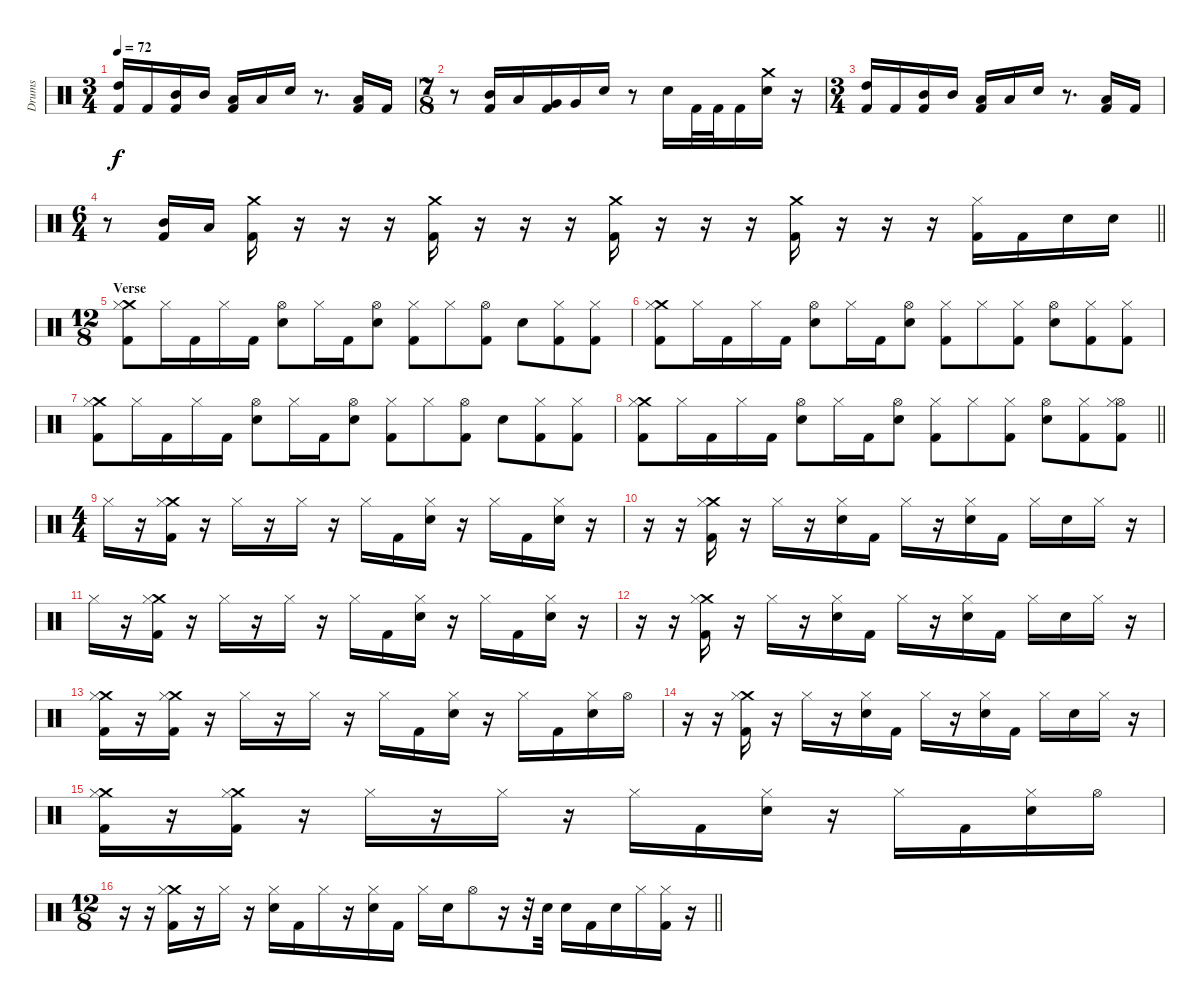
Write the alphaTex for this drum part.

\track ("Drums" "Drums") {instrument percussion}
\staff {score}
\articulation defaults
\ts (3 4)
\tempo 72
\clef neutral
\ks c
("High Tom (hit)" "Kick (hit) 2").16{dy f} "Kick (hit) 2".16 ("Mid Tom (hit)" "Kick (hit) 2").16 "Mid Tom (hit)".16 ("Low Tom (hit)" "Kick (hit) 2").16 "Low Tom (hit)".16 "Snare (hit) 2".16 r.8{d} ("Low Tom (hit)" "Kick (hit) 2").16 "Kick (hit) 2".16 |
\ts (7 8)
r.8 ("Mid Tom (hit)" "Kick (hit) 2").16 "Low Tom (hit)".16 ("Very Low Tom (hit)" "Kick (hit) 2").16 "Very Low Tom (hit)".16 "Snare (hit) 2".16 r.8 "Snare (hit) 2".16 "Kick (hit) 2".32 "Kick (hit) 2".32 "Kick (hit) 2".16 ("Crash medium (hit)" "Snare (hit) 2").16 r.16 |
\ts (3 4)
("High Tom (hit)" "Kick (hit) 2").16 "Kick (hit) 2".16 ("Mid Tom (hit)" "Kick (hit) 2").16 "Mid Tom (hit)".16 ("Low Tom (hit)" "Kick (hit) 2").16 "Low Tom (hit)".16 "Snare (hit) 2".16 r.8{d} ("Low Tom (hit)" "Kick (hit) 2").16 "Kick (hit) 2".16 |
\ts (6 4)
\barLineRight lightlight
r.8 ("Mid Tom (hit)" "Kick (hit) 2").16 "Low Tom (hit)".16 ("Crash medium (hit)" "Kick (hit) 2").16 r.16 r.16 r.16 ("Crash medium (hit)" "Kick (hit) 2").16 r.16 r.16 r.16 ("Crash medium (hit)" "Kick (hit) 2").16 r.16 r.16 r.16 ("Crash medium (hit)" "Kick (hit) 2").16 r.16 r.16 r.16 ("Hi-Hat (closed)" "Kick (hit) 2").16 "Kick (hit) 2".16 "Snare (hit) 2".16 "Snare (hit) 2".16 |
\ts (12 8)
\section ("" "Verse")
("Crash medium (hit)" "Hi-Hat (closed)" "Kick (hit) 2").8 "Hi-Hat (closed)".16 "Kick (hit) 2".16 "Hi-Hat (closed)".16 "Kick (hit) 2".16 ("Hi-Hat (open)" "Snare (hit) 2").8 "Hi-Hat (closed)".16 "Kick (hit) 2".16 ("Hi-Hat (open)" "Snare (hit) 2").8 ("Hi-Hat (closed)" "Kick (hit) 2").8 "Hi-Hat (closed)".8 ("Hi-Hat (open)" "Kick (hit) 2").8 "Snare (hit) 2".8 ("Hi-Hat (closed)" "Kick (hit) 2").8 ("Hi-Hat (closed)" "Kick (hit) 2").8 |
("Crash medium (hit)" "Hi-Hat (closed)" "Kick (hit) 2").8 "Hi-Hat (closed)".16 "Kick (hit) 2".16 "Hi-Hat (closed)".16 "Kick (hit) 2".16 ("Hi-Hat (open)" "Snare (hit) 2").8 "Hi-Hat (closed)".16 "Kick (hit) 2".16 ("Hi-Hat (open)" "Snare (hit) 2").8 ("Hi-Hat (closed)" "Kick (hit) 2").8 "Hi-Hat (closed)".8 ("Hi-Hat (closed)" "Kick (hit) 2").8 ("Hi-Hat (open)" "Snare (hit) 2").8 ("Hi-Hat (closed)" "Kick (hit) 2").8 ("Hi-Hat (closed)" "Kick (hit) 2").8 |
("Crash medium (hit)" "Hi-Hat (closed)" "Kick (hit) 2").8 "Hi-Hat (closed)".16 "Kick (hit) 2".16 "Hi-Hat (closed)".16 "Kick (hit) 2".16 ("Hi-Hat (open)" "Snare (hit) 2").8 "Hi-Hat (closed)".16 "Kick (hit) 2".16 ("Hi-Hat (open)" "Snare (hit) 2").8 ("Hi-Hat (closed)" "Kick (hit) 2").8 "Hi-Hat (closed)".8 ("Hi-Hat (open)" "Kick (hit) 2").8 "Snare (hit) 2".8 ("Hi-Hat (closed)" "Kick (hit) 2").8 ("Hi-Hat (closed)" "Kick (hit) 2").8 |
\barLineRight lightlight
("Crash medium (hit)" "Hi-Hat (closed)" "Kick (hit) 2").8 "Hi-Hat (closed)".16 "Kick (hit) 2".16 "Hi-Hat (closed)".16 "Kick (hit) 2".16 ("Hi-Hat (open)" "Snare (hit) 2").8 "Hi-Hat (closed)".16 "Kick (hit) 2".16 ("Hi-Hat (open)" "Snare (hit) 2").8 ("Hi-Hat (closed)" "Kick (hit) 2").8 "Hi-Hat (closed)".8 ("Hi-Hat (closed)" "Kick (hit) 2").8 ("Hi-Hat (open)" "Snare (hit) 2").8 ("Hi-Hat (closed)" "Kick (hit) 2").8 ("Hi-Hat (open)" "Hi-Hat (closed)" "Kick (hit) 2").8 |
\ts (4 4)
\section ("" "")
"Hi-Hat (closed)".16 r.16 ("Crash medium (hit)" "Hi-Hat (closed)" "Kick (hit) 2").16 r.16 "Hi-Hat (closed)".16 r.16 "Hi-Hat (closed)".16 r.16 "Hi-Hat (closed)".16 "Kick (hit) 2".16 ("Hi-Hat (closed)" "Snare (hit) 2").16 r.16 "Hi-Hat (closed)".16 "Kick (hit) 2".16 ("Hi-Hat (closed)" "Snare (hit) 2").16 r.16 |
r.16 r.16 ("Crash medium (hit)" "Hi-Hat (closed)" "Kick (hit) 2").16 r.16 "Hi-Hat (closed)".16 r.16 ("Hi-Hat (closed)" "Snare (hit) 2").16 "Kick (hit) 2".16 "Hi-Hat (closed)".16 r.16 ("Hi-Hat (closed)" "Snare (hit) 2").16 "Kick (hit) 2".16 "Hi-Hat (closed)".16 "Snare (hit) 2".16 "Hi-Hat (closed)".16 r.16 |
"Hi-Hat (closed)".16 r.16 ("Crash medium (hit)" "Hi-Hat (closed)" "Kick (hit) 2").16 r.16 "Hi-Hat (closed)".16 r.16 "Hi-Hat (closed)".16 r.16 "Hi-Hat (closed)".16 "Kick (hit) 2".16 ("Hi-Hat (closed)" "Snare (hit) 2").16 r.16 "Hi-Hat (closed)".16 "Kick (hit) 2".16 ("Hi-Hat (closed)" "Snare (hit) 2").16 r.16 |
r.16 r.16 ("Crash medium (hit)" "Hi-Hat (closed)" "Kick (hit) 2").16 r.16 "Hi-Hat (closed)".16 r.16 ("Hi-Hat (closed)" "Snare (hit) 2").16 "Kick (hit) 2".16 "Hi-Hat (closed)".16 r.16 ("Hi-Hat (closed)" "Snare (hit) 2").16 "Kick (hit) 2".16 "Hi-Hat (closed)".16 "Snare (hit) 2".16 "Hi-Hat (closed)".16 r.16 |
("Crash medium (hit)" "Hi-Hat (closed)" "Kick (hit) 2").16 r.16 ("Crash medium (hit)" "Hi-Hat (closed)" "Kick (hit) 2").16 r.16 "Hi-Hat (closed)".16 r.16 "Hi-Hat (closed)".16 r.16 "Hi-Hat (closed)".16 "Kick (hit) 2".16 ("Hi-Hat (closed)" "Snare (hit) 2").16 r.16 "Hi-Hat (closed)".16 "Kick (hit) 2".16 ("Hi-Hat (closed)" "Snare (hit) 2").16 "Hi-Hat (open)".16 |
r.16 r.16 ("Crash medium (hit)" "Hi-Hat (closed)" "Kick (hit) 2").16 r.16 "Hi-Hat (closed)".16 r.16 ("Hi-Hat (closed)" "Snare (hit) 2").16 "Kick (hit) 2".16 "Hi-Hat (closed)".16 r.16 ("Hi-Hat (closed)" "Snare (hit) 2").16 "Kick (hit) 2".16 "Hi-Hat (closed)".16 "Snare (hit) 2".16 "Hi-Hat (closed)".16 r.16 |
("Crash medium (hit)" "Hi-Hat (closed)" "Kick (hit) 2").16 r.16 ("Crash medium (hit)" "Hi-Hat (closed)" "Kick (hit) 2").16 r.16 "Hi-Hat (closed)".16 r.16 "Hi-Hat (closed)".16 r.16 "Hi-Hat (closed)".16 "Kick (hit) 2".16 ("Hi-Hat (closed)" "Snare (hit) 2").16 r.16 "Hi-Hat (closed)".16 "Kick (hit) 2".16 ("Hi-Hat (closed)" "Snare (hit) 2").16 "Hi-Hat (open)".16 |
\ts (12 8)
\barLineRight lightlight
r.16 r.16 ("Crash medium (hit)" "Hi-Hat (closed)" "Kick (hit) 2").16 r.16 "Hi-Hat (closed)".16 r.16 ("Hi-Hat (closed)" "Snare (hit) 2").16 "Kick (hit) 2".16 "Hi-Hat (closed)".16 r.16 ("Hi-Hat (closed)" "Snare (hit) 2").16 "Kick (hit) 2".16 "Hi-Hat (closed)".16 "Snare (hit) 2".16 "Hi-Hat (open)".8 r.16 r.32 "Snare (hit) 2".32 "Snare (hit) 2".16 "Kick (hit) 2".16 "Snare (hit) 2".16 "Hi-Hat (closed)".16 ("Hi-Hat (closed)" "Kick (hit) 2").16 r.16
